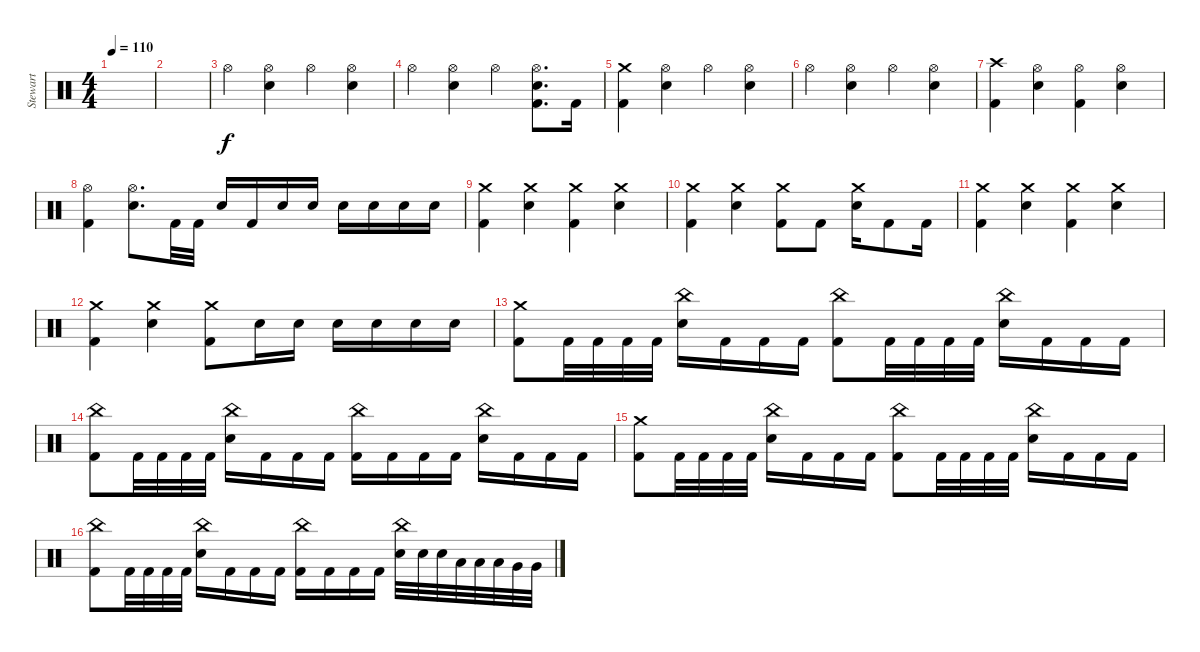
\track ("Stewart" "Stewart") {instrument percussion}
\staff {score}
\articulation defaults
\ts (4 4)
\tempo 110
\clef neutral
\ks c
|
|
"Hi-Hat (open)".4 ("Hi-Hat (open)" "Electric Snare (hit)").4 "Hi-Hat (open)".4 ("Hi-Hat (open)" "Electric Snare (hit)").4 |
"Hi-Hat (open)".4 ("Hi-Hat (open)" "Electric Snare (hit)").4 "Hi-Hat (open)".4 ("Hi-Hat (open)" "Electric Snare (hit)" "Kick (hit) 2").8{d} "Kick (hit) 2".16 |
("Crash medium (hit)" "Kick (hit) 2").4 ("Hi-Hat (open)" "Electric Snare (hit)").4 "Hi-Hat (open)".4 ("Hi-Hat (open)" "Electric Snare (hit)").4 |
"Hi-Hat (open)".4 ("Hi-Hat (open)" "Electric Snare (hit)").4 "Hi-Hat (open)".4 ("Hi-Hat (open)" "Electric Snare (hit)").4 |
("Crash high (hit)" "Kick (hit) 2").4 ("Hi-Hat (open)" "Electric Snare (hit)").4 ("Hi-Hat (open)" "Kick (hit) 2").4 ("Hi-Hat (open)" "Electric Snare (hit)").4 |
("Hi-Hat (open)" "Kick (hit) 2").4 ("Hi-Hat (open)" "Electric Snare (hit)").8{d} "Kick (hit) 2".32 "Kick (hit) 2".32 "Electric Snare (hit)".16 "Kick (hit) 2".16 "Electric Snare (hit)".16 "Electric Snare (hit)".16 "Electric Snare (hit)".16 "Electric Snare (hit)".16 "Electric Snare (hit)".16 "Electric Snare (hit)".16 |
("Crash medium (hit)" "Kick (hit) 2").4 ("Crash medium (hit)" "Electric Snare (hit)").4 ("Crash medium (hit)" "Kick (hit) 2").4 ("Crash medium (hit)" "Electric Snare (hit)").4 |
("Crash medium (hit)" "Kick (hit) 2").4 ("Crash medium (hit)" "Electric Snare (hit)").4 ("Crash medium (hit)" "Kick (hit) 2").8 "Kick (hit) 2".8 ("Crash medium (hit)" "Electric Snare (hit)").16 "Kick (hit) 2".8 "Kick (hit) 2".16 |
("Crash medium (hit)" "Kick (hit) 2").4 ("Crash medium (hit)" "Electric Snare (hit)").4 ("Crash medium (hit)" "Kick (hit) 2").4 ("Crash medium (hit)" "Electric Snare (hit)").4 |
("Crash medium (hit)" "Kick (hit) 2").4 ("Crash medium (hit)" "Electric Snare (hit)").4 ("Crash medium (hit)" "Kick (hit) 2").8 "Electric Snare (hit)".16 "Electric Snare (hit)".16 "Electric Snare (hit)".16 "Electric Snare (hit)".16 "Electric Snare (hit)".16 "Electric Snare (hit)".16 |
("Crash medium (hit)" "Kick (hit) 2").8 "Kick (hit) 2".32 "Kick (hit) 2".32 "Kick (hit) 2".32 "Kick (hit) 2".32 ("China (hit)" "Electric Snare (hit)").16 "Kick (hit) 2".16 "Kick (hit) 2".16 "Kick (hit) 2".16 ("China (hit)" "Kick (hit) 2").8 "Kick (hit) 2".32 "Kick (hit) 2".32 "Kick (hit) 2".32 "Kick (hit) 2".32 ("China (hit)" "Electric Snare (hit)").16 "Kick (hit) 2".16 "Kick (hit) 2".16 "Kick (hit) 2".16 |
("China (hit)" "Kick (hit) 2").8 "Kick (hit) 2".32 "Kick (hit) 2".32 "Kick (hit) 2".32 "Kick (hit) 2".32 ("China (hit)" "Electric Snare (hit)").16 "Kick (hit) 2".16 "Kick (hit) 2".16 "Kick (hit) 2".16 ("China (hit)" "Kick (hit) 2").16 "Kick (hit) 2".16 "Kick (hit) 2".16 "Kick (hit) 2".16 ("China (hit)" "Electric Snare (hit)").16 "Kick (hit) 2".16 "Kick (hit) 2".16 "Kick (hit) 2".16 |
("Crash medium (hit)" "Kick (hit) 2").8 "Kick (hit) 2".32 "Kick (hit) 2".32 "Kick (hit) 2".32 "Kick (hit) 2".32 ("China (hit)" "Electric Snare (hit)").16 "Kick (hit) 2".16 "Kick (hit) 2".16 "Kick (hit) 2".16 ("China (hit)" "Kick (hit) 2").8 "Kick (hit) 2".32 "Kick (hit) 2".32 "Kick (hit) 2".32 "Kick (hit) 2".32 ("China (hit)" "Electric Snare (hit)").16 "Kick (hit) 2".16 "Kick (hit) 2".16 "Kick (hit) 2".16 |
("China (hit)" "Kick (hit) 2").8 "Kick (hit) 2".32 "Kick (hit) 2".32 "Kick (hit) 2".32 "Kick (hit) 2".32 ("China (hit)" "Electric Snare (hit)").16 "Kick (hit) 2".16 "Kick (hit) 2".16 "Kick (hit) 2".16 ("China (hit)" "Kick (hit) 2").16 "Kick (hit) 2".16 "Kick (hit) 2".16 "Kick (hit) 2".16 ("China (hit)" "Electric Snare (hit)").32 "Electric Snare (hit)".32 "Electric Snare (hit)".32 "Low Tom (hit)".32 "Low Tom (hit)".32 "Low Tom (hit)".32 "Very Low Tom (hit)".32 "Very Low Tom (hit)".32
